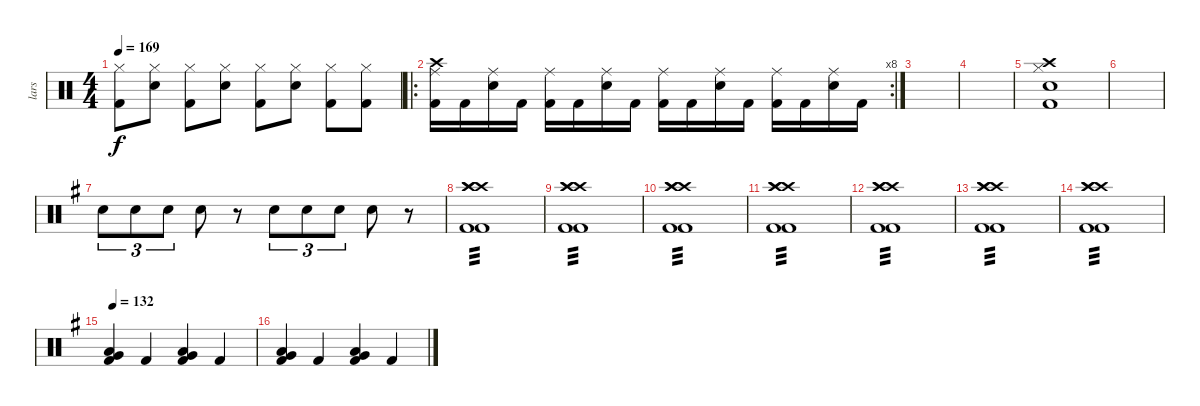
\track ("lars" "lars") {instrument percussion}
\staff {score}
\articulation defaults
\ts (4 4)
\tempo 169
\clef neutral
\ks c
("Kick (hit) 2" "Hi-Hat (closed)").8{dy f} ("Snare (hit) 2" "Hi-Hat (closed)").8 ("Kick (hit) 2" "Hi-Hat (closed)").8 ("Snare (hit) 2" "Hi-Hat (closed)").8 ("Kick (hit) 2" "Hi-Hat (closed)").8 ("Snare (hit) 2" "Hi-Hat (closed)").8 ("Kick (hit) 2" "Hi-Hat (closed)").8 ("Kick (hit) 2" "Hi-Hat (closed)").8 |
\ro
\rc 8
("Crash high (hit)" "Ride (middle)" "Kick (hit) 2").16 "Kick (hit) 2".16 ("Ride (middle)" "Snare (hit) 2").16 "Kick (hit) 2".16 ("Ride (middle)" "Kick (hit) 2").16 "Kick (hit) 2".16 ("Ride (middle)" "Snare (hit) 2").16 "Kick (hit) 2".16 ("Kick (hit) 2" "Ride (middle)").16 "Kick (hit) 2".16 ("Ride (middle)" "Snare (hit) 2").16 "Kick (hit) 2".16 ("Ride (middle)" "Kick (hit) 2").16 "Kick (hit) 2".16 ("Ride (middle)" "Snare (hit) 2").16 "Kick (hit) 2".16 |
|
|
("Kick (hit) 2" "Snare (hit) 2" "Hi-Hat (closed)" "Crash high (hit)").1 |
|
\ks g "Snare (hit) 2".8{tu (3 2)} "Snare (hit) 2".8{tu (3 2)} "Snare (hit) 2".8{tu (3 2)} "Snare (hit) 2".8
r.8 "Snare (hit) 2".8{tu (3 2)} "Snare (hit) 2".8{tu (3 2)} "Snare (hit) 2".8{tu (3 2)} "Snare (hit) 2".8 r.8 |
("Kick (hit) 2" "Crash high (hit)" "Crash high (hit)" "Crash high (hit)" "Kick (hit) 2").1{tp 3} |
("Kick (hit) 2" "Crash high (hit)" "Crash high (hit)" "Crash high (hit)" "Kick (hit) 2").1{tp 3} |
("Kick (hit) 2" "Crash high (hit)" "Crash high (hit)" "Crash high (hit)" "Kick (hit) 2").1{tp 3} |
("Kick (hit) 2" "Crash high (hit)" "Crash high (hit)" "Crash high (hit)" "Kick (hit) 2").1{tp 3} |
("Kick (hit) 2" "Crash high (hit)" "Crash high (hit)" "Crash high (hit)" "Kick (hit) 2").1{tp 3} |
("Kick (hit) 2" "Crash high (hit)" "Crash high (hit)" "Crash high (hit)" "Kick (hit) 2").1{tp 3} |
("Kick (hit) 2" "Crash high (hit)" "Crash high (hit)" "Crash high (hit)" "Kick (hit) 2").1{tp 3} |
\tempo 132
("Very Low Tom (hit)" "Low Floor Tom (hit)" "Kick (hit) 2").4 "Kick (hit) 2".4 ("Very Low Tom (hit)" "Low Floor Tom (hit)" "Kick (hit) 2").4 "Kick (hit) 2".4 |
("Very Low Tom (hit)" "Low Floor Tom (hit)" "Kick (hit) 2").4 "Kick (hit) 2".4 ("Very Low Tom (hit)" "Low Floor Tom (hit)" "Kick (hit) 2").4 "Kick (hit) 2".4
